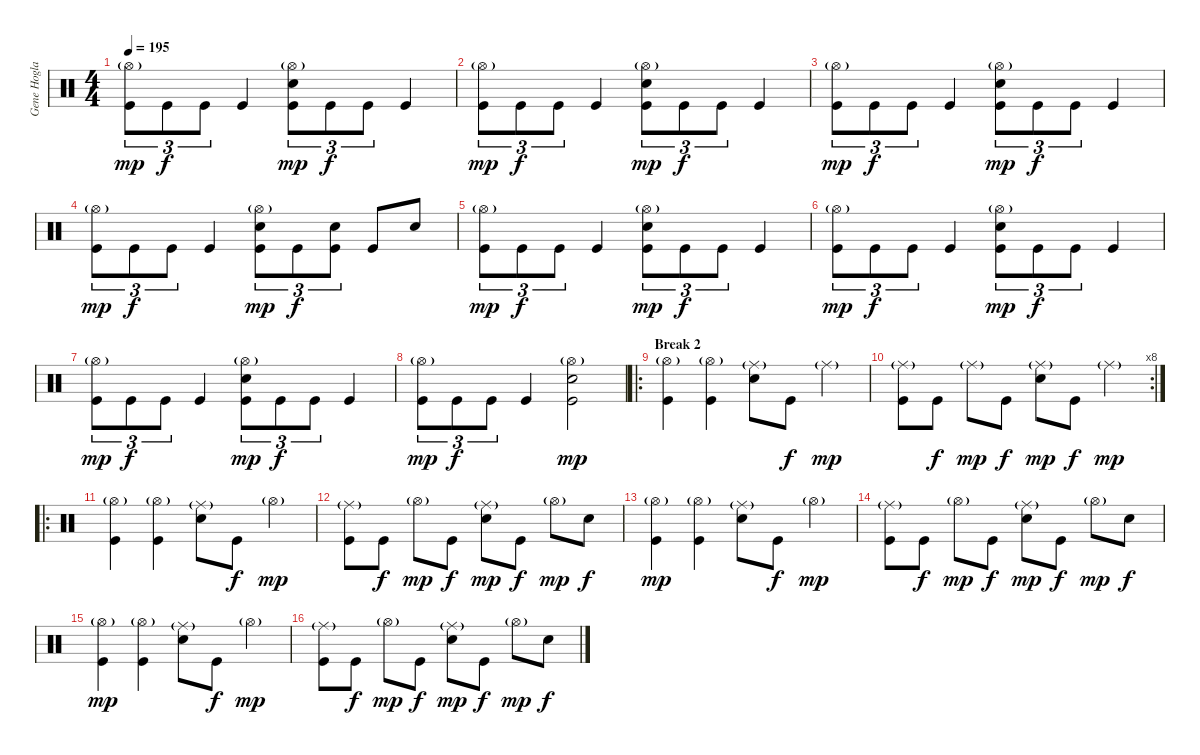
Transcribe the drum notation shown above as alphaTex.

\track ("Gene Hoglan" "Gene Hogla") {instrument percussion}
\staff {score}
\articulation defaults
\ts (4 4)
\tempo 195
\clef neutral
\ks c
("Hi-Hat (open)"{g} "Kick (hit)").8{tu (3 2) dy mp} "Kick (hit)".8{tu (3 2) dy f} "Kick (hit)".8{tu (3 2)} "Kick (hit)".4 ("Hi-Hat (open)"{g} "Electric Snare (hit)" "Kick (hit)").8{tu (3 2) dy mp} "Kick (hit)".8{tu (3 2) dy f} "Kick (hit)".8{tu (3 2)} "Kick (hit)".4 |
("Hi-Hat (open)"{g} "Kick (hit)").8{tu (3 2) dy mp} "Kick (hit)".8{tu (3 2) dy f} "Kick (hit)".8{tu (3 2)} "Kick (hit)".4 ("Hi-Hat (open)"{g} "Electric Snare (hit)" "Kick (hit)").8{tu (3 2) dy mp} "Kick (hit)".8{tu (3 2) dy f} "Kick (hit)".8{tu (3 2)} "Kick (hit)".4 |
("Hi-Hat (open)"{g} "Kick (hit)").8{tu (3 2) dy mp} "Kick (hit)".8{tu (3 2) dy f} "Kick (hit)".8{tu (3 2)} "Kick (hit)".4 ("Hi-Hat (open)"{g} "Electric Snare (hit)" "Kick (hit)").8{tu (3 2) dy mp} "Kick (hit)".8{tu (3 2) dy f} "Kick (hit)".8{tu (3 2)} "Kick (hit)".4 |
("Hi-Hat (open)"{g} "Kick (hit)").8{tu (3 2) dy mp} "Kick (hit)".8{tu (3 2) dy f} "Kick (hit)".8{tu (3 2)} "Kick (hit)".4 ("Hi-Hat (open)"{g} "Electric Snare (hit)" "Kick (hit)").8{tu (3 2) dy mp} "Kick (hit)".8{tu (3 2) dy f} ("Electric Snare (hit)" "Kick (hit)").8{tu (3 2)} "Kick (hit)".8 "Electric Snare (hit)".8 |
("Hi-Hat (open)"{g} "Kick (hit)").8{tu (3 2) dy mp} "Kick (hit)".8{tu (3 2) dy f} "Kick (hit)".8{tu (3 2)} "Kick (hit)".4 ("Hi-Hat (open)"{g} "Electric Snare (hit)" "Kick (hit)").8{tu (3 2) dy mp} "Kick (hit)".8{tu (3 2) dy f} "Kick (hit)".8{tu (3 2)} "Kick (hit)".4 |
("Hi-Hat (open)"{g} "Kick (hit)").8{tu (3 2) dy mp} "Kick (hit)".8{tu (3 2) dy f} "Kick (hit)".8{tu (3 2)} "Kick (hit)".4 ("Hi-Hat (open)"{g} "Electric Snare (hit)" "Kick (hit)").8{tu (3 2) dy mp} "Kick (hit)".8{tu (3 2) dy f} "Kick (hit)".8{tu (3 2)} "Kick (hit)".4 |
("Hi-Hat (open)"{g} "Kick (hit)").8{tu (3 2) dy mp} "Kick (hit)".8{tu (3 2) dy f} "Kick (hit)".8{tu (3 2)} "Kick (hit)".4 ("Hi-Hat (open)"{g} "Electric Snare (hit)" "Kick (hit)").8{tu (3 2) dy mp} "Kick (hit)".8{tu (3 2) dy f} "Kick (hit)".8{tu (3 2)} "Kick (hit)".4 |
("Hi-Hat (open)"{g} "Kick (hit)").8{tu (3 2) dy mp} "Kick (hit)".8{tu (3 2) dy f} "Kick (hit)".8{tu (3 2)} "Kick (hit)".4 ("Hi-Hat (open)"{g} "Electric Snare (hit)" "Kick (hit)").2{dy mp} |
\ro
\section ("" "Break 2")
("Hi-Hat (open)"{g} "Kick (hit)").4 ("Hi-Hat (open)"{g} "Kick (hit)").4 ("Ride (middle)"{g} "Electric Snare (hit)").8 "Kick (hit)".8{dy f} "Ride (middle)"{g}.4{dy mp} |
\rc 8
("Ride (middle)"{g} "Kick (hit)").8 "Kick (hit)".8{dy f} "Ride (middle)"{g}.8{dy mp} "Kick (hit)".8{dy f} ("Ride (middle)"{g} "Electric Snare (hit)").8{dy mp} "Kick (hit)".8{dy f} "Ride (middle)"{g}.4{dy mp} |
\ro
("Hi-Hat (open)"{g} "Kick (hit)").4 ("Hi-Hat (open)"{g} "Kick (hit)").4 ("Ride (middle)"{g} "Electric Snare (hit)").8 "Kick (hit)".8{dy f} "Hi-Hat (open)"{g}.4{dy mp} |
("Ride (middle)"{g} "Kick (hit)").8 "Kick (hit)".8{dy f} "Hi-Hat (open)"{g}.8{dy mp} "Kick (hit)".8{dy f} ("Ride (middle)"{g} "Electric Snare (hit)").8{dy mp} "Kick (hit)".8{dy f} "Hi-Hat (open)"{g}.8{dy mp} "Electric Snare (hit)".8{dy f} |
("Hi-Hat (open)"{g} "Kick (hit)").4{dy mp} ("Hi-Hat (open)"{g} "Kick (hit)").4 ("Ride (middle)"{g} "Electric Snare (hit)").8 "Kick (hit)".8{dy f} "Hi-Hat (open)"{g}.4{dy mp} |
("Ride (middle)"{g} "Kick (hit)").8 "Kick (hit)".8{dy f} "Hi-Hat (open)"{g}.8{dy mp} "Kick (hit)".8{dy f} ("Ride (middle)"{g} "Electric Snare (hit)").8{dy mp} "Kick (hit)".8{dy f} "Hi-Hat (open)"{g}.8{dy mp} "Electric Snare (hit)".8{dy f} |
("Hi-Hat (open)"{g} "Kick (hit)").4{dy mp} ("Hi-Hat (open)"{g} "Kick (hit)").4 ("Ride (middle)"{g} "Electric Snare (hit)").8 "Kick (hit)".8{dy f} "Hi-Hat (open)"{g}.4{dy mp} |
("Ride (middle)"{g} "Kick (hit)").8 "Kick (hit)".8{dy f} "Hi-Hat (open)"{g}.8{dy mp} "Kick (hit)".8{dy f} ("Ride (middle)"{g} "Electric Snare (hit)").8{dy mp} "Kick (hit)".8{dy f} "Hi-Hat (open)"{g}.8{dy mp} "Electric Snare (hit)".8{dy f}
